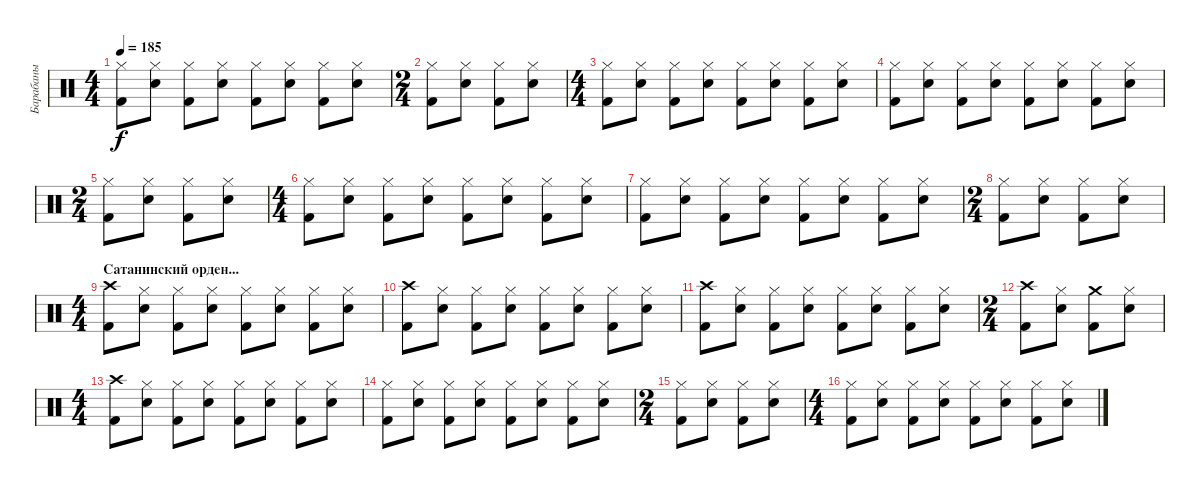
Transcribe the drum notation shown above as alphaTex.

\track ("Барабаны" "Барабаны") {instrument percussion}
\staff {score}
\articulation defaults
\ts (4 4)
\tempo 185
\clef neutral
\ks c
("Hi-Hat (closed)" "Kick (hit) 2").8{dy f} ("Hi-Hat (closed)" "Snare (hit) 2").8 ("Hi-Hat (closed)" "Kick (hit) 2").8 ("Hi-Hat (closed)" "Snare (hit) 2").8 ("Hi-Hat (closed)" "Kick (hit) 2").8 ("Hi-Hat (closed)" "Snare (hit) 2").8 ("Hi-Hat (closed)" "Kick (hit) 2").8 ("Hi-Hat (closed)" "Snare (hit) 2").8 |
\ts (2 4)
("Hi-Hat (closed)" "Kick (hit) 2").8 ("Hi-Hat (closed)" "Snare (hit) 2").8 ("Hi-Hat (closed)" "Kick (hit) 2").8 ("Hi-Hat (closed)" "Snare (hit) 2").8 |
\ts (4 4)
("Hi-Hat (closed)" "Kick (hit) 2").8 ("Hi-Hat (closed)" "Snare (hit) 2").8 ("Hi-Hat (closed)" "Kick (hit) 2").8 ("Hi-Hat (closed)" "Snare (hit) 2").8 ("Hi-Hat (closed)" "Kick (hit) 2").8 ("Hi-Hat (closed)" "Snare (hit) 2").8 ("Hi-Hat (closed)" "Kick (hit) 2").8 ("Hi-Hat (closed)" "Snare (hit) 2").8 |
("Hi-Hat (closed)" "Kick (hit) 2").8 ("Hi-Hat (closed)" "Snare (hit) 2").8 ("Hi-Hat (closed)" "Kick (hit) 2").8 ("Hi-Hat (closed)" "Snare (hit) 2").8 ("Hi-Hat (closed)" "Kick (hit) 2").8 ("Hi-Hat (closed)" "Snare (hit) 2").8 ("Hi-Hat (closed)" "Kick (hit) 2").8 ("Hi-Hat (closed)" "Snare (hit) 2").8 |
\ts (2 4)
("Hi-Hat (closed)" "Kick (hit) 2").8 ("Hi-Hat (closed)" "Snare (hit) 2").8 ("Hi-Hat (closed)" "Kick (hit) 2").8 ("Hi-Hat (closed)" "Snare (hit) 2").8 |
\ts (4 4)
("Hi-Hat (closed)" "Kick (hit) 2").8 ("Hi-Hat (closed)" "Snare (hit) 2").8 ("Hi-Hat (closed)" "Kick (hit) 2").8 ("Hi-Hat (closed)" "Snare (hit) 2").8 ("Hi-Hat (closed)" "Kick (hit) 2").8 ("Hi-Hat (closed)" "Snare (hit) 2").8 ("Hi-Hat (closed)" "Kick (hit) 2").8 ("Hi-Hat (closed)" "Snare (hit) 2").8 |
("Hi-Hat (closed)" "Kick (hit) 2").8 ("Hi-Hat (closed)" "Snare (hit) 2").8 ("Hi-Hat (closed)" "Kick (hit) 2").8 ("Hi-Hat (closed)" "Snare (hit) 2").8 ("Hi-Hat (closed)" "Kick (hit) 2").8 ("Hi-Hat (closed)" "Snare (hit) 2").8 ("Hi-Hat (closed)" "Kick (hit) 2").8 ("Hi-Hat (closed)" "Snare (hit) 2").8 |
\ts (2 4)
("Hi-Hat (closed)" "Kick (hit) 2").8 ("Hi-Hat (closed)" "Snare (hit) 2").8 ("Hi-Hat (closed)" "Kick (hit) 2").8 ("Hi-Hat (closed)" "Snare (hit) 2").8 |
\ts (4 4)
\section ("" "Сатанинский орден...")
("Crash high (hit)" "Kick (hit) 2").8 ("Hi-Hat (closed)" "Snare (hit) 2").8 ("Hi-Hat (closed)" "Kick (hit) 2").8 ("Hi-Hat (closed)" "Snare (hit) 2").8 ("Hi-Hat (closed)" "Kick (hit) 2").8 ("Hi-Hat (closed)" "Snare (hit) 2").8 ("Hi-Hat (closed)" "Kick (hit) 2").8 ("Hi-Hat (closed)" "Snare (hit) 2").8 |
("Crash high (hit)" "Kick (hit) 2").8 ("Hi-Hat (closed)" "Snare (hit) 2").8 ("Hi-Hat (closed)" "Kick (hit) 2").8 ("Hi-Hat (closed)" "Snare (hit) 2").8 ("Hi-Hat (closed)" "Kick (hit) 2").8 ("Hi-Hat (closed)" "Snare (hit) 2").8 ("Hi-Hat (closed)" "Kick (hit) 2").8 ("Hi-Hat (closed)" "Snare (hit) 2").8 |
("Crash high (hit)" "Kick (hit) 2").8 ("Hi-Hat (closed)" "Snare (hit) 2").8 ("Hi-Hat (closed)" "Kick (hit) 2").8 ("Hi-Hat (closed)" "Snare (hit) 2").8 ("Hi-Hat (closed)" "Kick (hit) 2").8 ("Hi-Hat (closed)" "Snare (hit) 2").8 ("Hi-Hat (closed)" "Kick (hit) 2").8 ("Hi-Hat (closed)" "Snare (hit) 2").8 |
\ts (2 4)
("Crash high (hit)" "Kick (hit) 2").8 ("Hi-Hat (closed)" "Snare (hit) 2").8 ("Crash medium (hit)" "Kick (hit) 2").8 ("Hi-Hat (closed)" "Snare (hit) 2").8 |
\ts (4 4)
("Crash high (hit)" "Kick (hit) 2").8 ("Hi-Hat (closed)" "Snare (hit) 2").8 ("Hi-Hat (closed)" "Kick (hit) 2").8 ("Hi-Hat (closed)" "Snare (hit) 2").8 ("Hi-Hat (closed)" "Kick (hit) 2").8 ("Hi-Hat (closed)" "Snare (hit) 2").8 ("Hi-Hat (closed)" "Kick (hit) 2").8 ("Hi-Hat (closed)" "Snare (hit) 2").8 |
("Hi-Hat (closed)" "Kick (hit) 2").8 ("Hi-Hat (closed)" "Snare (hit) 2").8 ("Hi-Hat (closed)" "Kick (hit) 2").8 ("Hi-Hat (closed)" "Snare (hit) 2").8 ("Hi-Hat (closed)" "Kick (hit) 2").8 ("Hi-Hat (closed)" "Snare (hit) 2").8 ("Hi-Hat (closed)" "Kick (hit) 2").8 ("Hi-Hat (closed)" "Snare (hit) 2").8 |
\ts (2 4)
("Hi-Hat (closed)" "Kick (hit) 2").8 ("Hi-Hat (closed)" "Snare (hit) 2").8 ("Hi-Hat (closed)" "Kick (hit) 2").8 ("Hi-Hat (closed)" "Snare (hit) 2").8 |
\ts (4 4)
("Hi-Hat (closed)" "Kick (hit) 2").8 ("Hi-Hat (closed)" "Snare (hit) 2").8 ("Hi-Hat (closed)" "Kick (hit) 2").8 ("Hi-Hat (closed)" "Snare (hit) 2").8 ("Hi-Hat (closed)" "Kick (hit) 2").8 ("Hi-Hat (closed)" "Snare (hit) 2").8 ("Hi-Hat (closed)" "Kick (hit) 2").8 ("Hi-Hat (closed)" "Snare (hit) 2").8
